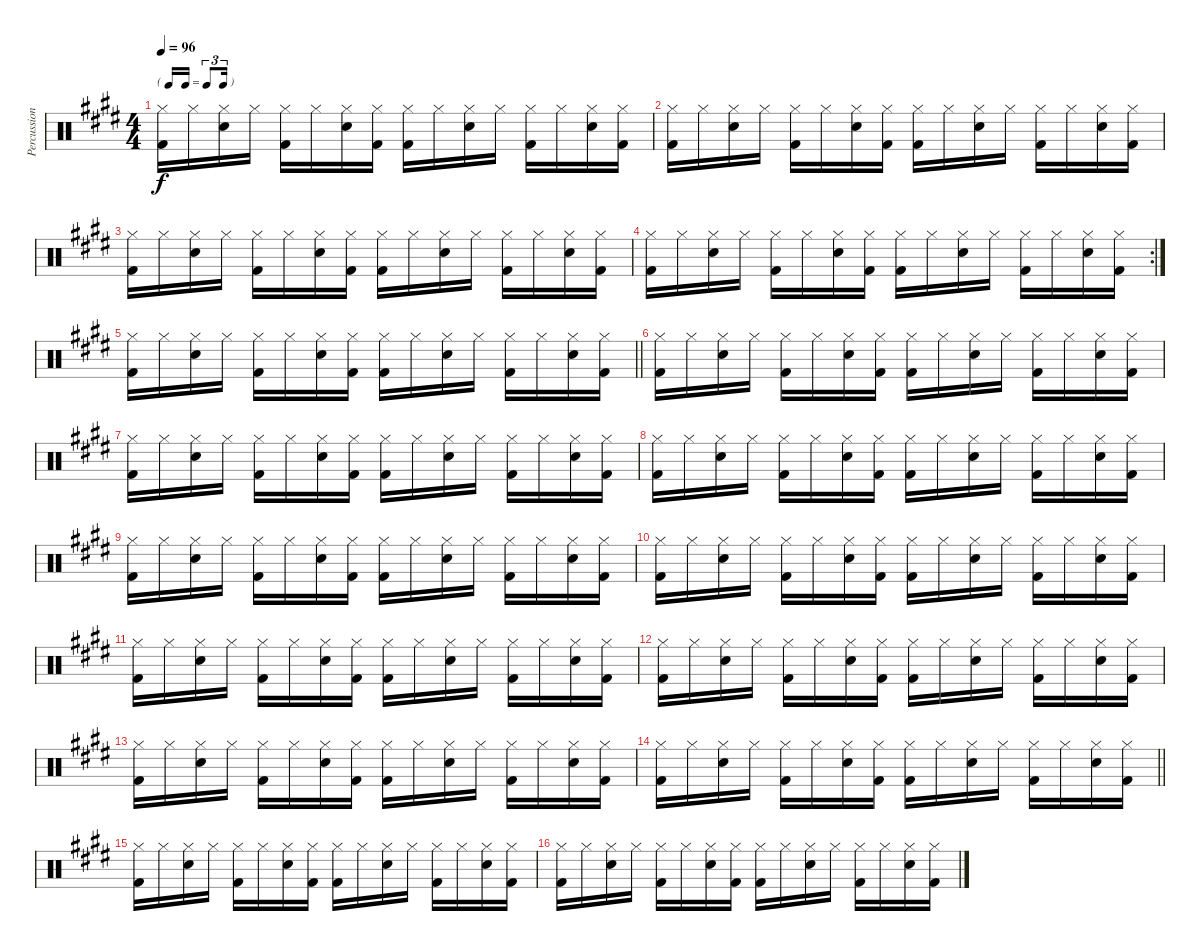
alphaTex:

\track ("Percussion" "Percussion") {instrument percussion}
\staff {score}
\articulation defaults
\ts (4 4)
\tf triplet16th
\tempo 96
\clef neutral
\ks e
("Hi-Hat (closed)" "Kick (hit) 2").16{dy f} "Hi-Hat (closed)".16 ("Hi-Hat (closed)" "Snare (hit) 2").16 "Hi-Hat (closed)".16 ("Hi-Hat (closed)" "Kick (hit) 2").16 "Hi-Hat (closed)".16 ("Hi-Hat (closed)" "Snare (hit) 2").16 ("Hi-Hat (closed)" "Kick (hit) 2").16 ("Hi-Hat (closed)" "Kick (hit) 2").16 "Hi-Hat (closed)".16 ("Hi-Hat (closed)" "Snare (hit) 2").16 "Hi-Hat (closed)".16 ("Hi-Hat (closed)" "Kick (hit) 2").16 "Hi-Hat (closed)".16 ("Hi-Hat (closed)" "Snare (hit) 2").16 ("Hi-Hat (closed)" "Kick (hit) 2").16 |
("Hi-Hat (closed)" "Kick (hit) 2").16 "Hi-Hat (closed)".16 ("Hi-Hat (closed)" "Snare (hit) 2").16 "Hi-Hat (closed)".16 ("Hi-Hat (closed)" "Kick (hit) 2").16 "Hi-Hat (closed)".16 ("Hi-Hat (closed)" "Snare (hit) 2").16 ("Hi-Hat (closed)" "Kick (hit) 2").16 ("Hi-Hat (closed)" "Kick (hit) 2").16 "Hi-Hat (closed)".16 ("Hi-Hat (closed)" "Snare (hit) 2").16 "Hi-Hat (closed)".16 ("Hi-Hat (closed)" "Kick (hit) 2").16 "Hi-Hat (closed)".16 ("Hi-Hat (closed)" "Snare (hit) 2").16 ("Hi-Hat (closed)" "Kick (hit) 2").16 |
("Hi-Hat (closed)" "Kick (hit) 2").16 "Hi-Hat (closed)".16 ("Hi-Hat (closed)" "Snare (hit) 2").16 "Hi-Hat (closed)".16 ("Hi-Hat (closed)" "Kick (hit) 2").16 "Hi-Hat (closed)".16 ("Hi-Hat (closed)" "Snare (hit) 2").16 ("Hi-Hat (closed)" "Kick (hit) 2").16 ("Hi-Hat (closed)" "Kick (hit) 2").16 "Hi-Hat (closed)".16 ("Hi-Hat (closed)" "Snare (hit) 2").16 "Hi-Hat (closed)".16 ("Hi-Hat (closed)" "Kick (hit) 2").16 "Hi-Hat (closed)".16 ("Hi-Hat (closed)" "Snare (hit) 2").16 ("Hi-Hat (closed)" "Kick (hit) 2").16 |
\rc 2
("Hi-Hat (closed)" "Kick (hit) 2").16 "Hi-Hat (closed)".16 ("Hi-Hat (closed)" "Snare (hit) 2").16 "Hi-Hat (closed)".16 ("Hi-Hat (closed)" "Kick (hit) 2").16 "Hi-Hat (closed)".16 ("Hi-Hat (closed)" "Snare (hit) 2").16 ("Hi-Hat (closed)" "Kick (hit) 2").16 ("Hi-Hat (closed)" "Kick (hit) 2").16 "Hi-Hat (closed)".16 ("Hi-Hat (closed)" "Snare (hit) 2").16 "Hi-Hat (closed)".16 ("Hi-Hat (closed)" "Kick (hit) 2").16 "Hi-Hat (closed)".16 ("Hi-Hat (closed)" "Snare (hit) 2").16 ("Hi-Hat (closed)" "Kick (hit) 2").16 |
\barLineRight lightlight
("Hi-Hat (closed)" "Kick (hit) 2").16 "Hi-Hat (closed)".16 ("Hi-Hat (closed)" "Snare (hit) 2").16 "Hi-Hat (closed)".16 ("Hi-Hat (closed)" "Kick (hit) 2").16 "Hi-Hat (closed)".16 ("Hi-Hat (closed)" "Snare (hit) 2").16 ("Hi-Hat (closed)" "Kick (hit) 2").16 ("Hi-Hat (closed)" "Kick (hit) 2").16 "Hi-Hat (closed)".16 ("Hi-Hat (closed)" "Snare (hit) 2").16 "Hi-Hat (closed)".16 ("Hi-Hat (closed)" "Kick (hit) 2").16 "Hi-Hat (closed)".16 ("Hi-Hat (closed)" "Snare (hit) 2").16 ("Hi-Hat (closed)" "Kick (hit) 2").16 |
("Hi-Hat (closed)" "Kick (hit) 2").16 "Hi-Hat (closed)".16 ("Hi-Hat (closed)" "Snare (hit) 2").16 "Hi-Hat (closed)".16 ("Hi-Hat (closed)" "Kick (hit) 2").16 "Hi-Hat (closed)".16 ("Hi-Hat (closed)" "Snare (hit) 2").16 ("Hi-Hat (closed)" "Kick (hit) 2").16 ("Hi-Hat (closed)" "Kick (hit) 2").16 "Hi-Hat (closed)".16 ("Hi-Hat (closed)" "Snare (hit) 2").16 "Hi-Hat (closed)".16 ("Hi-Hat (closed)" "Kick (hit) 2").16 "Hi-Hat (closed)".16 ("Hi-Hat (closed)" "Snare (hit) 2").16 ("Hi-Hat (closed)" "Kick (hit) 2").16 |
("Hi-Hat (closed)" "Kick (hit) 2").16 "Hi-Hat (closed)".16 ("Hi-Hat (closed)" "Snare (hit) 2").16 "Hi-Hat (closed)".16 ("Hi-Hat (closed)" "Kick (hit) 2").16 "Hi-Hat (closed)".16 ("Hi-Hat (closed)" "Snare (hit) 2").16 ("Hi-Hat (closed)" "Kick (hit) 2").16 ("Hi-Hat (closed)" "Kick (hit) 2").16 "Hi-Hat (closed)".16 ("Hi-Hat (closed)" "Snare (hit) 2").16 "Hi-Hat (closed)".16 ("Hi-Hat (closed)" "Kick (hit) 2").16 "Hi-Hat (closed)".16 ("Hi-Hat (closed)" "Snare (hit) 2").16 ("Hi-Hat (closed)" "Kick (hit) 2").16 |
("Hi-Hat (closed)" "Kick (hit) 2").16 "Hi-Hat (closed)".16 ("Hi-Hat (closed)" "Snare (hit) 2").16 "Hi-Hat (closed)".16 ("Hi-Hat (closed)" "Kick (hit) 2").16 "Hi-Hat (closed)".16 ("Hi-Hat (closed)" "Snare (hit) 2").16 ("Hi-Hat (closed)" "Kick (hit) 2").16 ("Hi-Hat (closed)" "Kick (hit) 2").16 "Hi-Hat (closed)".16 ("Hi-Hat (closed)" "Snare (hit) 2").16 "Hi-Hat (closed)".16 ("Hi-Hat (closed)" "Kick (hit) 2").16 "Hi-Hat (closed)".16 ("Hi-Hat (closed)" "Snare (hit) 2").16 ("Hi-Hat (closed)" "Kick (hit) 2").16 |
("Hi-Hat (closed)" "Kick (hit) 2").16 "Hi-Hat (closed)".16 ("Hi-Hat (closed)" "Snare (hit) 2").16 "Hi-Hat (closed)".16 ("Hi-Hat (closed)" "Kick (hit) 2").16 "Hi-Hat (closed)".16 ("Hi-Hat (closed)" "Snare (hit) 2").16 ("Hi-Hat (closed)" "Kick (hit) 2").16 ("Hi-Hat (closed)" "Kick (hit) 2").16 "Hi-Hat (closed)".16 ("Hi-Hat (closed)" "Snare (hit) 2").16 "Hi-Hat (closed)".16 ("Hi-Hat (closed)" "Kick (hit) 2").16 "Hi-Hat (closed)".16 ("Hi-Hat (closed)" "Snare (hit) 2").16 ("Hi-Hat (closed)" "Kick (hit) 2").16 |
("Hi-Hat (closed)" "Kick (hit) 2").16 "Hi-Hat (closed)".16 ("Hi-Hat (closed)" "Snare (hit) 2").16 "Hi-Hat (closed)".16 ("Hi-Hat (closed)" "Kick (hit) 2").16 "Hi-Hat (closed)".16 ("Hi-Hat (closed)" "Snare (hit) 2").16 ("Hi-Hat (closed)" "Kick (hit) 2").16 ("Hi-Hat (closed)" "Kick (hit) 2").16 "Hi-Hat (closed)".16 ("Hi-Hat (closed)" "Snare (hit) 2").16 "Hi-Hat (closed)".16 ("Hi-Hat (closed)" "Kick (hit) 2").16 "Hi-Hat (closed)".16 ("Hi-Hat (closed)" "Snare (hit) 2").16 ("Hi-Hat (closed)" "Kick (hit) 2").16 |
("Hi-Hat (closed)" "Kick (hit) 2").16 "Hi-Hat (closed)".16 ("Hi-Hat (closed)" "Snare (hit) 2").16 "Hi-Hat (closed)".16 ("Hi-Hat (closed)" "Kick (hit) 2").16 "Hi-Hat (closed)".16 ("Hi-Hat (closed)" "Snare (hit) 2").16 ("Hi-Hat (closed)" "Kick (hit) 2").16 ("Hi-Hat (closed)" "Kick (hit) 2").16 "Hi-Hat (closed)".16 ("Hi-Hat (closed)" "Snare (hit) 2").16 "Hi-Hat (closed)".16 ("Hi-Hat (closed)" "Kick (hit) 2").16 "Hi-Hat (closed)".16 ("Hi-Hat (closed)" "Snare (hit) 2").16 ("Hi-Hat (closed)" "Kick (hit) 2").16 |
("Hi-Hat (closed)" "Kick (hit) 2").16 "Hi-Hat (closed)".16 ("Hi-Hat (closed)" "Snare (hit) 2").16 "Hi-Hat (closed)".16 ("Hi-Hat (closed)" "Kick (hit) 2").16 "Hi-Hat (closed)".16 ("Hi-Hat (closed)" "Snare (hit) 2").16 ("Hi-Hat (closed)" "Kick (hit) 2").16 ("Hi-Hat (closed)" "Kick (hit) 2").16 "Hi-Hat (closed)".16 ("Hi-Hat (closed)" "Snare (hit) 2").16 "Hi-Hat (closed)".16 ("Hi-Hat (closed)" "Kick (hit) 2").16 "Hi-Hat (closed)".16 ("Hi-Hat (closed)" "Snare (hit) 2").16 ("Hi-Hat (closed)" "Kick (hit) 2").16 |
("Hi-Hat (closed)" "Kick (hit) 2").16 "Hi-Hat (closed)".16 ("Hi-Hat (closed)" "Snare (hit) 2").16 "Hi-Hat (closed)".16 ("Hi-Hat (closed)" "Kick (hit) 2").16 "Hi-Hat (closed)".16 ("Hi-Hat (closed)" "Snare (hit) 2").16 ("Hi-Hat (closed)" "Kick (hit) 2").16 ("Hi-Hat (closed)" "Kick (hit) 2").16 "Hi-Hat (closed)".16 ("Hi-Hat (closed)" "Snare (hit) 2").16 "Hi-Hat (closed)".16 ("Hi-Hat (closed)" "Kick (hit) 2").16 "Hi-Hat (closed)".16 ("Hi-Hat (closed)" "Snare (hit) 2").16 ("Hi-Hat (closed)" "Kick (hit) 2").16 |
\barLineRight lightlight
("Hi-Hat (closed)" "Kick (hit) 2").16 "Hi-Hat (closed)".16 ("Hi-Hat (closed)" "Snare (hit) 2").16 "Hi-Hat (closed)".16 ("Hi-Hat (closed)" "Kick (hit) 2").16 "Hi-Hat (closed)".16 ("Hi-Hat (closed)" "Snare (hit) 2").16 ("Hi-Hat (closed)" "Kick (hit) 2").16 ("Hi-Hat (closed)" "Kick (hit) 2").16 "Hi-Hat (closed)".16 ("Hi-Hat (closed)" "Snare (hit) 2").16 "Hi-Hat (closed)".16 ("Hi-Hat (closed)" "Kick (hit) 2").16 "Hi-Hat (closed)".16 ("Hi-Hat (closed)" "Snare (hit) 2").16 ("Hi-Hat (closed)" "Kick (hit) 2").16 |
("Hi-Hat (closed)" "Kick (hit) 2").16 "Hi-Hat (closed)".16 ("Hi-Hat (closed)" "Snare (hit) 2").16 "Hi-Hat (closed)".16 ("Hi-Hat (closed)" "Kick (hit) 2").16 "Hi-Hat (closed)".16 ("Hi-Hat (closed)" "Snare (hit) 2").16 ("Hi-Hat (closed)" "Kick (hit) 2").16 ("Hi-Hat (closed)" "Kick (hit) 2").16 "Hi-Hat (closed)".16 ("Hi-Hat (closed)" "Snare (hit) 2").16 "Hi-Hat (closed)".16 ("Hi-Hat (closed)" "Kick (hit) 2").16 "Hi-Hat (closed)".16 ("Hi-Hat (closed)" "Snare (hit) 2").16 ("Hi-Hat (closed)" "Kick (hit) 2").16 |
("Hi-Hat (closed)" "Kick (hit) 2").16 "Hi-Hat (closed)".16 ("Hi-Hat (closed)" "Snare (hit) 2").16 "Hi-Hat (closed)".16 ("Hi-Hat (closed)" "Kick (hit) 2").16 "Hi-Hat (closed)".16 ("Hi-Hat (closed)" "Snare (hit) 2").16 ("Hi-Hat (closed)" "Kick (hit) 2").16 ("Hi-Hat (closed)" "Kick (hit) 2").16 "Hi-Hat (closed)".16 ("Hi-Hat (closed)" "Snare (hit) 2").16 "Hi-Hat (closed)".16 ("Hi-Hat (closed)" "Kick (hit) 2").16 "Hi-Hat (closed)".16 ("Hi-Hat (closed)" "Snare (hit) 2").16 ("Hi-Hat (closed)" "Kick (hit) 2").16
